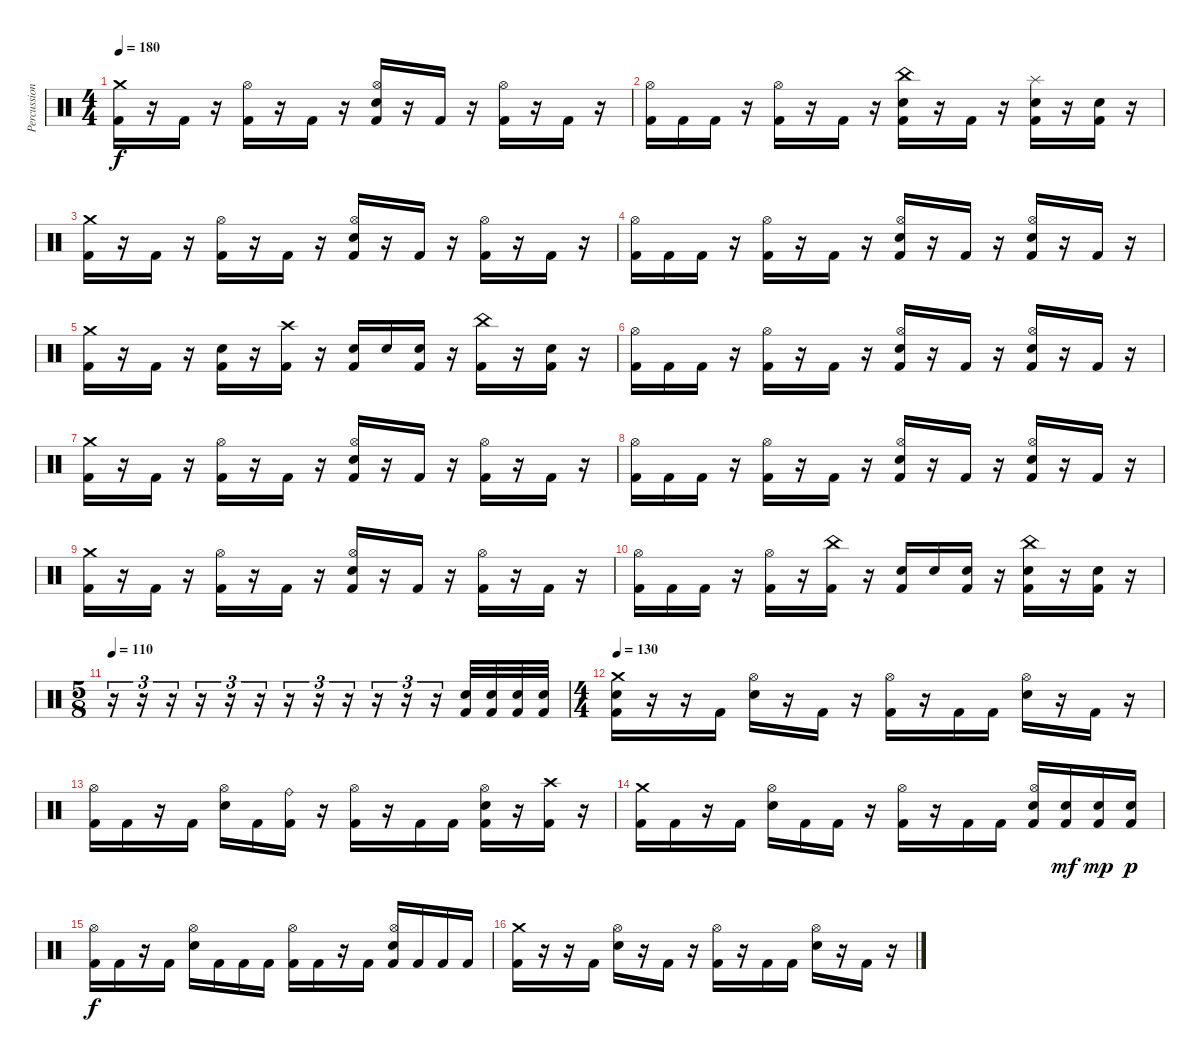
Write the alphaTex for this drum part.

\track ("Percussion" "Percussion") {instrument percussion}
\staff {score}
\articulation defaults
\ts (4 4)
\tempo 180
\clef neutral
\ks c
("Crash medium (hit)" "Kick (hit) 2").16{dy f} r.16 "Kick (hit) 2".16 r.16 ("Hi-Hat (open)" "Kick (hit) 2").16 r.16 "Kick (hit) 2".16 r.16 ("Hi-Hat (open)" "Electric Snare (hit)" "Kick (hit) 2").16 r.16 "Kick (hit) 2".16 r.16 ("Hi-Hat (open)" "Kick (hit) 2").16 r.16 "Kick (hit) 2".16 r.16 |
("Hi-Hat (open)" "Kick (hit) 2").16 "Kick (hit) 2".16 "Kick (hit) 2".16 r.16 ("Hi-Hat (open)" "Kick (hit) 2").16 r.16 "Kick (hit) 2".16 r.16 ("China (hit)" "Electric Snare (hit)" "Kick (hit) 2").16 r.16 "Kick (hit) 2".16 r.16 ("Splash (hit)" "Electric Snare (hit)" "Kick (hit) 2").16 r.16 ("Electric Snare (hit)" "Kick (hit) 2").16 r.16 |
("Crash medium (hit)" "Kick (hit) 2").16 r.16 "Kick (hit) 2".16 r.16 ("Hi-Hat (open)" "Kick (hit) 2").16 r.16 "Kick (hit) 2".16 r.16 ("Hi-Hat (open)" "Electric Snare (hit)" "Kick (hit) 2").16 r.16 "Kick (hit) 2".16 r.16 ("Hi-Hat (open)" "Kick (hit) 2").16 r.16 "Kick (hit) 2".16 r.16 |
("Hi-Hat (open)" "Kick (hit) 2").16 "Kick (hit) 2".16 "Kick (hit) 2".16 r.16 ("Hi-Hat (open)" "Kick (hit) 2").16 r.16 "Kick (hit) 2".16 r.16 ("Hi-Hat (open)" "Electric Snare (hit)" "Kick (hit) 2").16 r.16 "Kick (hit) 2".16 r.16 ("Hi-Hat (open)" "Electric Snare (hit)" "Kick (hit) 2").16 r.16 "Kick (hit) 2".16 r.16 |
("Crash medium (hit)" "Kick (hit) 2").16 r.16 "Kick (hit) 2".16 r.16 ("Electric Snare (hit)" "Kick (hit) 2").16 r.16 ("Crash high (hit)" "Kick (hit) 2").16 r.16 ("Electric Snare (hit)" "Kick (hit) 2").16 "Electric Snare (hit)".16 ("Electric Snare (hit)" "Kick (hit) 2").16 r.16 ("China (hit)" "Kick (hit) 2").16 r.16 ("Electric Snare (hit)" "Kick (hit) 2").16 r.16 |
("Hi-Hat (open)" "Kick (hit) 2").16 "Kick (hit) 2".16 "Kick (hit) 2".16 r.16 ("Hi-Hat (open)" "Kick (hit) 2").16 r.16 "Kick (hit) 2".16 r.16 ("Hi-Hat (open)" "Electric Snare (hit)" "Kick (hit) 2").16 r.16 "Kick (hit) 2".16 r.16 ("Hi-Hat (open)" "Electric Snare (hit)" "Kick (hit) 2").16 r.16 "Kick (hit) 2".16 r.16 |
("Crash medium (hit)" "Kick (hit) 2").16 r.16 "Kick (hit) 2".16 r.16 ("Hi-Hat (open)" "Kick (hit) 2").16 r.16 "Kick (hit) 2".16 r.16 ("Hi-Hat (open)" "Electric Snare (hit)" "Kick (hit) 2").16 r.16 "Kick (hit) 2".16 r.16 ("Hi-Hat (open)" "Kick (hit) 2").16 r.16 "Kick (hit) 2".16 r.16 |
("Hi-Hat (open)" "Kick (hit) 2").16 "Kick (hit) 2".16 "Kick (hit) 2".16 r.16 ("Hi-Hat (open)" "Kick (hit) 2").16 r.16 "Kick (hit) 2".16 r.16 ("Hi-Hat (open)" "Electric Snare (hit)" "Kick (hit) 2").16 r.16 "Kick (hit) 2".16 r.16 ("Hi-Hat (open)" "Electric Snare (hit)" "Kick (hit) 2").16 r.16 "Kick (hit) 2".16 r.16 |
("Crash medium (hit)" "Kick (hit) 2").16 r.16 "Kick (hit) 2".16 r.16 ("Hi-Hat (open)" "Kick (hit) 2").16 r.16 "Kick (hit) 2".16 r.16 ("Hi-Hat (open)" "Electric Snare (hit)" "Kick (hit) 2").16 r.16 "Kick (hit) 2".16 r.16 ("Hi-Hat (open)" "Kick (hit) 2").16 r.16 "Kick (hit) 2".16 r.16 |
("Hi-Hat (open)" "Kick (hit) 2").16 "Kick (hit) 2".16 "Kick (hit) 2".16 r.16 ("Hi-Hat (open)" "Kick (hit) 2").16 r.16 ("China (hit)" "Kick (hit) 2").16 r.16 ("Electric Snare (hit)" "Kick (hit) 2").16 "Electric Snare (hit)".16 ("Electric Snare (hit)" "Kick (hit) 2").16 r.16 ("China (hit)" "Electric Snare (hit)" "Kick (hit) 2").16 r.16 ("Electric Snare (hit)" "Kick (hit) 2").16 r.16 |
\ts (5 8)
\tempo 110
r.16{tu (3 2)} r.16{tu (3 2)} r.16{tu (3 2)} r.16{tu (3 2)} r.16{tu (3 2)} r.16{tu (3 2)} r.16{tu (3 2)} r.16{tu (3 2)} r.16{tu (3 2)} r.16{tu (3 2)} r.16{tu (3 2)} r.16{tu (3 2)} ("Electric Snare (hit)" "Kick (hit) 2").32 ("Electric Snare (hit)" "Kick (hit) 2").32 ("Electric Snare (hit)" "Kick (hit) 2").32 ("Electric Snare (hit)" "Kick (hit) 2").32 |
\ts (4 4)
\tempo 130
("Crash medium (hit)" "Snare (hit) 2" "Kick (hit) 2").16 r.16 r.16 "Kick (hit) 2".16 ("Hi-Hat (open)" "Electric Snare (hit)").16 r.16 "Kick (hit) 2".16 r.16 ("Hi-Hat (open)" "Kick (hit) 2").16 r.16 "Kick (hit) 2".16 "Kick (hit) 2".16 ("Hi-Hat (open)" "Electric Snare (hit)").16 r.16 "Kick (hit) 2".16 r.16 |
("Hi-Hat (open)" "Kick (hit) 2").16 "Kick (hit) 2".16 r.16 "Kick (hit) 2".16 ("Hi-Hat (open)" "Electric Snare (hit)").16 "Kick (hit) 2".16 ("Ride (bell)" "Kick (hit) 2").16 r.16 ("Hi-Hat (open)" "Kick (hit) 2").16 r.16 "Kick (hit) 2".16 "Kick (hit) 2".16 ("Hi-Hat (open)" "Electric Snare (hit)" "Kick (hit) 2").16 r.16 ("Crash high (hit)" "Kick (hit) 2").16 r.16 |
("Crash medium (hit)" "Kick (hit) 2").16 "Kick (hit) 2".16 r.16 "Kick (hit) 2".16 ("Hi-Hat (open)" "Electric Snare (hit)").16 "Kick (hit) 2".16 "Kick (hit) 2".16 r.16 ("Hi-Hat (open)" "Kick (hit) 2").16 r.16 "Kick (hit) 2".16 "Kick (hit) 2".16 ("Hi-Hat (open)" "Electric Snare (hit)" "Kick (hit) 2").16 ("Electric Snare (hit)" "Kick (hit) 2").16{dy mf} ("Electric Snare (hit)" "Kick (hit) 2").16{dy mp} ("Electric Snare (hit)" "Kick (hit) 2").16{dy p} |
("Hi-Hat (open)" "Kick (hit) 2").16{dy f} "Kick (hit) 2".16 r.16 "Kick (hit) 2".16 ("Hi-Hat (open)" "Electric Snare (hit)").16 "Kick (hit) 2".16 "Kick (hit) 2".16 "Kick (hit) 2".16 ("Hi-Hat (open)" "Kick (hit) 2").16 "Kick (hit) 2".16 r.16 "Kick (hit) 2".16 ("Hi-Hat (open)" "Electric Snare (hit)" "Kick (hit) 2").16 "Kick (hit) 2".16 "Kick (hit) 2".16 "Kick (hit) 2".16 |
("Crash medium (hit)" "Kick (hit) 2").16 r.16 r.16 "Kick (hit) 2".16 ("Hi-Hat (open)" "Electric Snare (hit)").16 r.16 "Kick (hit) 2".16 r.16 ("Hi-Hat (open)" "Kick (hit) 2").16 r.16 "Kick (hit) 2".16 "Kick (hit) 2".16 ("Hi-Hat (open)" "Electric Snare (hit)").16 r.16 "Kick (hit) 2".16 r.16
